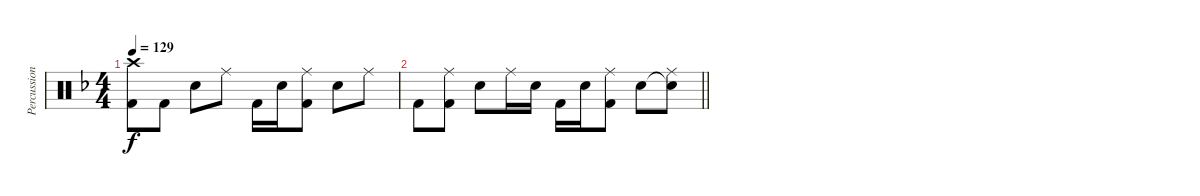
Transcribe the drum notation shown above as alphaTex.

\track ("Percussion" "Percussion") {instrument percussion}
\staff {score}
\articulation defaults
\ts (4 4)
\tempo 129
\clef neutral
\ks f
("Crash high (hit)" "Kick (hit) 2").8{dy f} "Kick (hit) 2".8 "Electric Snare (hit)".8 "Ride (middle)".8 "Kick (hit) 2".16 "Electric Snare (hit)".16 ("Ride (middle)" "Kick (hit) 2").8 "Electric Snare (hit)".8 "Ride (middle)".8 |
\barLineRight lightlight "Kick (hit) 2".8
("Ride (middle)" "Kick (hit) 2").8 "Electric Snare (hit)".8 "Ride (middle)".16 "Electric Snare (hit)".16 "Kick (hit) 2".16 "Electric Snare (hit)".16 ("Ride (middle)" "Kick (hit) 2").8 "Electric Snare (hit)".8 ("Snare (hit)"{t} "Ride (middle)").8
